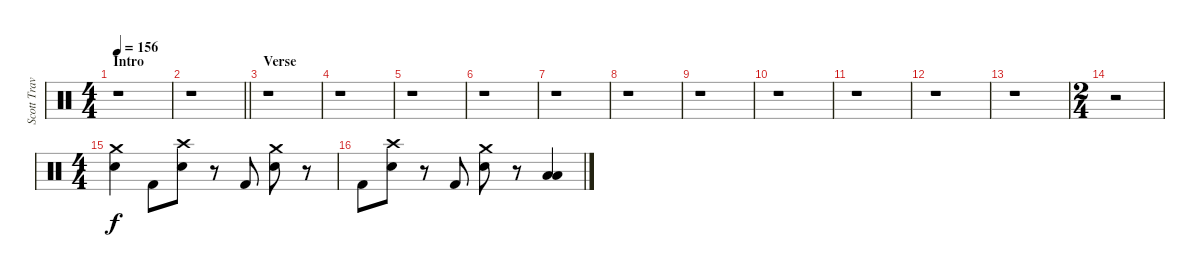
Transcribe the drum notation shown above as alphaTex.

\track ("Scott Travis" "Scott Trav") {instrument percussion}
\staff {score}
\articulation defaults
\ts (4 4)
\section ("" "Intro")
\tempo 156
\clef neutral
\ks c
r.1{dy f} |
\barLineRight lightlight
r.1 |
\section ("" "Verse")
r.1 |
r.1 |
r.1 |
r.1 |
r.1 |
r.1 |
r.1 |
r.1 |
r.1 |
r.1 |
r.1 |
\ts (2 4)
r.2 |
\ts (4 4)
("Crash medium (hit)" "Snare (hit) 2").4 "Kick (hit) 2".8 ("Crash high (hit)" "Snare (hit) 2").8 r.8 "Kick (hit) 2".8 ("Crash medium (hit)" "Snare (hit) 2").8 r.8 |
"Kick (hit) 2".8 ("Crash high (hit)" "Snare (hit) 2").8 r.8 "Kick (hit) 2".8 ("Crash medium (hit)" "Snare (hit) 2").8 r.8 ("Low Tom (hit)" "Low Tom (hit)").4
